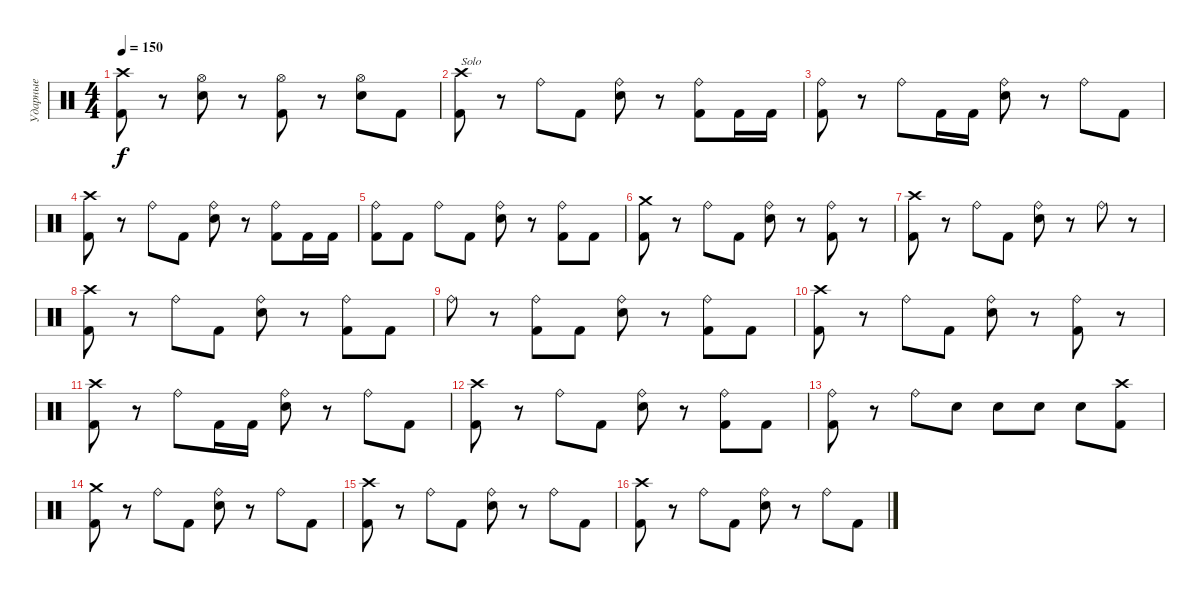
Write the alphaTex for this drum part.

\track ("Ударные" "Ударные") {instrument percussion}
\staff
\articulation defaults
\ts (4 4)
\tempo 150
\clef neutral
\ks c
("Kick (hit) 2" "Crash high (hit)").8{dy f} r.8 ("Snare (hit) 2" "Hi-Hat (open)").8 r.8 ("Kick (hit) 2" "Hi-Hat (open)").8 r.8 ("Snare (hit) 2" "Hi-Hat (open)").8 "Kick (hit) 2".8 |
("Kick (hit) 2" "Crash high (hit)").8{txt "Solo"} r.8 "Ride (bell)".8 "Kick (hit) 2".8 ("Snare (hit) 2" "Ride (bell)").8 r.8 ("Kick (hit) 2" "Ride (bell)").8 "Kick (hit) 2".16 "Kick (hit) 2".16 |
("Kick (hit) 2" "Ride (bell)").8 r.8 "Ride (bell)".8 "Kick (hit) 2".16 "Kick (hit) 2".16 ("Snare (hit) 2" "Ride (bell)").8 r.8 "Ride (bell)".8 "Kick (hit) 2".8 |
("Kick (hit) 2" "Crash high (hit)").8 r.8 "Ride (bell)".8 "Kick (hit) 2".8 ("Snare (hit) 2" "Ride (bell)").8 r.8 ("Kick (hit) 2" "Ride (bell)").8 "Kick (hit) 2".16 "Kick (hit) 2".16 |
("Kick (hit) 2" "Ride (bell)").8 "Kick (hit) 2".8 "Ride (bell)".8 "Kick (hit) 2".8 ("Snare (hit) 2" "Ride (bell)").8 r.8 ("Kick (hit) 2" "Ride (bell)").8 "Kick (hit) 2".8 |
("Kick (hit) 2" "Crash medium (hit)").8 r.8 "Ride (bell)".8 "Kick (hit) 2".8 ("Snare (hit) 2" "Ride (bell)").8 r.8 ("Kick (hit) 2" "Ride (bell)").8 r.8 |
("Kick (hit) 2" "Crash high (hit)").8 r.8 "Ride (bell)".8 "Kick (hit) 2".8 ("Snare (hit) 2" "Ride (bell)").8 r.8 "Ride (bell)".8 r.8 |
("Kick (hit) 2" "Crash high (hit)").8 r.8 "Ride (bell)".8 "Kick (hit) 2".8 ("Snare (hit) 2" "Ride (bell)").8 r.8 ("Kick (hit) 2" "Ride (bell)").8 "Kick (hit) 2".8 |
"Ride (bell)".8 r.8 ("Kick (hit) 2" "Ride (bell)").8 "Kick (hit) 2".8 ("Snare (hit) 2" "Ride (bell)").8 r.8 ("Kick (hit) 2" "Ride (bell)").8 "Kick (hit) 2".8 |
("Kick (hit) 2" "Crash high (hit)").8 r.8 "Ride (bell)".8 "Kick (hit) 2".8 ("Snare (hit) 2" "Ride (bell)").8 r.8 ("Kick (hit) 2" "Ride (bell)").8 r.8 |
("Kick (hit) 2" "Crash high (hit)").8 r.8 "Ride (bell)".8 "Kick (hit) 2".16 "Kick (hit) 2".16 ("Snare (hit) 2" "Ride (bell)").8 r.8 "Ride (bell)".8 "Kick (hit) 2".8 |
("Kick (hit) 2" "Crash high (hit)").8 r.8 "Ride (bell)".8 "Kick (hit) 2".8 ("Snare (hit) 2" "Ride (bell)").8 r.8 ("Kick (hit) 2" "Ride (bell)").8 "Kick (hit) 2".8 |
("Kick (hit) 2" "Ride (bell)").8 r.8 "Ride (bell)".8 "Snare (hit) 2".8 "Snare (hit) 2".8 "Snare (hit) 2".8 "Snare (hit) 2".8 ("Kick (hit) 2" "Crash high (hit)").8 |
("Kick (hit) 2" "Crash medium (hit)").8 r.8 "Ride (bell)".8 "Kick (hit) 2".8 ("Snare (hit) 2" "Ride (bell)").8 r.8 "Ride (bell)".8 "Kick (hit) 2".8 |
("Kick (hit) 2" "Crash high (hit)").8 r.8 "Ride (bell)".8 "Kick (hit) 2".8 ("Snare (hit) 2" "Ride (bell)").8 r.8 "Ride (bell)".8 "Kick (hit) 2".8 |
("Kick (hit) 2" "Crash high (hit)").8 r.8 "Ride (bell)".8 "Kick (hit) 2".8 ("Snare (hit) 2" "Ride (bell)").8 r.8 "Ride (bell)".8 "Kick (hit) 2".8
